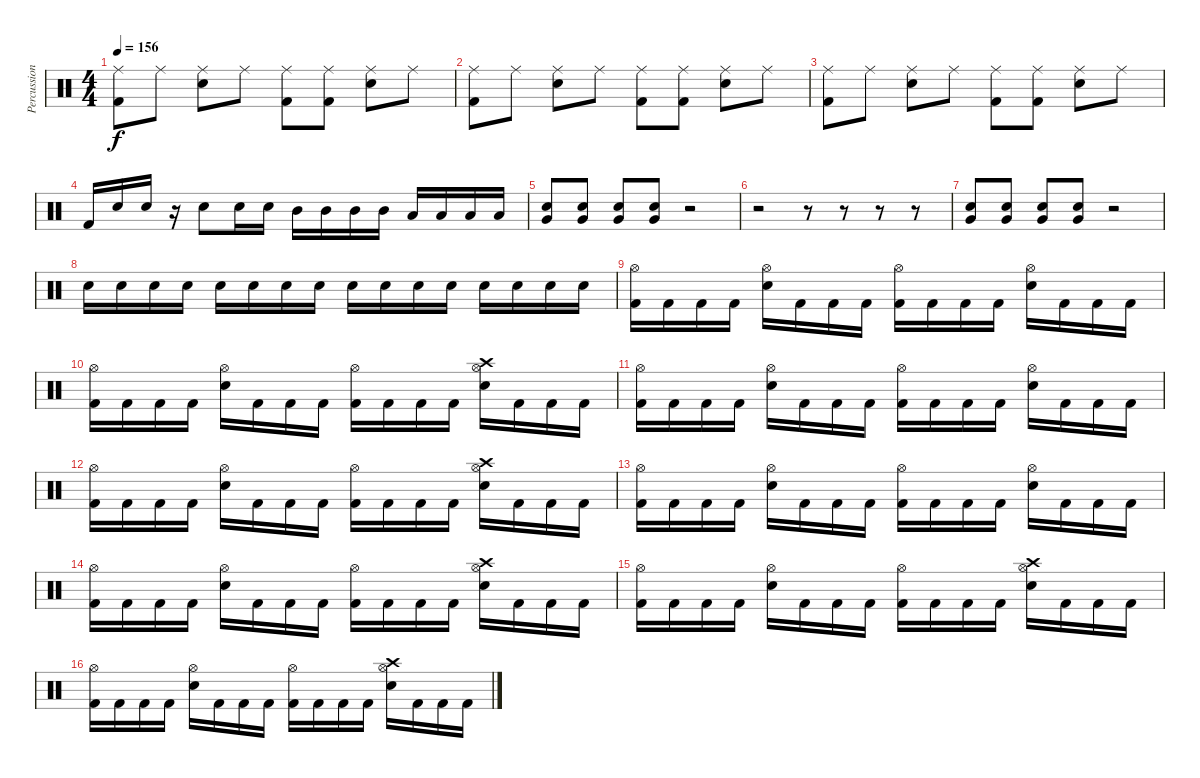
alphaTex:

\track ("Percussion" "Percussion") {instrument percussion}
\staff {score}
\articulation defaults
\ts (4 4)
\tempo 156
\clef neutral
\ks c
("Ride (middle)" "Kick (hit) 2").8{dy f} "Ride (middle)".8 ("Ride (middle)" "Snare (hit) 2").8 "Ride (middle)".8 ("Ride (middle)" "Kick (hit) 2").8 ("Ride (middle)" "Kick (hit) 2").8 ("Ride (middle)" "Snare (hit) 2").8 "Ride (middle)".8 |
("Ride (middle)" "Kick (hit) 2").8 "Ride (middle)".8 ("Ride (middle)" "Snare (hit) 2").8 "Ride (middle)".8 ("Ride (middle)" "Kick (hit) 2").8 ("Ride (middle)" "Kick (hit) 2").8 ("Ride (middle)" "Snare (hit) 2").8 "Ride (middle)".8 |
("Ride (middle)" "Kick (hit) 2").8 "Ride (middle)".8 ("Ride (middle)" "Snare (hit) 2").8 "Ride (middle)".8 ("Ride (middle)" "Kick (hit) 2").8 ("Ride (middle)" "Kick (hit) 2").8 ("Ride (middle)" "Snare (hit) 2").8 "Ride (middle)".8 |
"Kick (hit) 2".16 "Electric Snare (hit)".16 "Electric Snare (hit)".16 r.16 "Electric Snare (hit)".8 "Electric Snare (hit)".16 "Electric Snare (hit)".16 "Mid Tom (hit)".16 "Mid Tom (hit)".16 "Mid Tom (hit)".16 "Mid Tom (hit)".16 "Low Tom (hit)".16 "Low Tom (hit)".16 "Low Tom (hit)".16 "Low Tom (hit)".16 |
("Very Low Tom (hit)" "Snare (hit) 2").8 ("Very Low Tom (hit)" "Snare (hit) 2").8 ("Very Low Tom (hit)" "Snare (hit) 2").8 ("Very Low Tom (hit)" "Snare (hit) 2").8 r.2 |
r.2 r.8 r.8 r.8 r.8 |
("Very Low Tom (hit)" "Snare (hit) 2").8 ("Very Low Tom (hit)" "Snare (hit) 2").8 ("Very Low Tom (hit)" "Snare (hit) 2").8 ("Very Low Tom (hit)" "Snare (hit) 2").8 r.2 |
"Snare (hit) 2".16 "Snare (hit) 2".16 "Snare (hit) 2".16 "Snare (hit) 2".16 "Snare (hit) 2".16 "Snare (hit) 2".16 "Snare (hit) 2".16 "Snare (hit) 2".16 "Snare (hit) 2".16 "Snare (hit) 2".16 "Snare (hit) 2".16 "Snare (hit) 2".16 "Snare (hit) 2".16 "Snare (hit) 2".16 "Snare (hit) 2".16 "Snare (hit) 2".16 |
("Hi-Hat (open)" "Kick (hit) 2").16 "Kick (hit) 2".16 "Kick (hit) 2".16 "Kick (hit) 2".16 ("Hi-Hat (open)" "Snare (hit) 2").16 "Kick (hit) 2".16 "Kick (hit) 2".16 "Kick (hit) 2".16 ("Hi-Hat (open)" "Kick (hit) 2").16 "Kick (hit) 2".16 "Kick (hit) 2".16 "Kick (hit) 2".16 ("Hi-Hat (open)" "Snare (hit) 2").16 "Kick (hit) 2".16 "Kick (hit) 2".16 "Kick (hit) 2".16 |
("Hi-Hat (open)" "Kick (hit) 2").16 "Kick (hit) 2".16 "Kick (hit) 2".16 "Kick (hit) 2".16 ("Hi-Hat (open)" "Snare (hit) 2").16 "Kick (hit) 2".16 "Kick (hit) 2".16 "Kick (hit) 2".16 ("Hi-Hat (open)" "Kick (hit) 2").16 "Kick (hit) 2".16 "Kick (hit) 2".16 "Kick (hit) 2".16 ("Crash high (hit)" "Hi-Hat (open)" "Snare (hit) 2").16 "Kick (hit) 2".16 "Kick (hit) 2".16 "Kick (hit) 2".16 |
("Hi-Hat (open)" "Kick (hit) 2").16 "Kick (hit) 2".16 "Kick (hit) 2".16 "Kick (hit) 2".16 ("Hi-Hat (open)" "Snare (hit) 2").16 "Kick (hit) 2".16 "Kick (hit) 2".16 "Kick (hit) 2".16 ("Hi-Hat (open)" "Kick (hit) 2").16 "Kick (hit) 2".16 "Kick (hit) 2".16 "Kick (hit) 2".16 ("Hi-Hat (open)" "Snare (hit) 2").16 "Kick (hit) 2".16 "Kick (hit) 2".16 "Kick (hit) 2".16 |
("Hi-Hat (open)" "Kick (hit) 2").16 "Kick (hit) 2".16 "Kick (hit) 2".16 "Kick (hit) 2".16 ("Hi-Hat (open)" "Snare (hit) 2").16 "Kick (hit) 2".16 "Kick (hit) 2".16 "Kick (hit) 2".16 ("Hi-Hat (open)" "Kick (hit) 2").16 "Kick (hit) 2".16 "Kick (hit) 2".16 "Kick (hit) 2".16 ("Crash high (hit)" "Hi-Hat (open)" "Snare (hit) 2").16 "Kick (hit) 2".16 "Kick (hit) 2".16 "Kick (hit) 2".16 |
("Hi-Hat (open)" "Kick (hit) 2").16 "Kick (hit) 2".16 "Kick (hit) 2".16 "Kick (hit) 2".16 ("Hi-Hat (open)" "Snare (hit) 2").16 "Kick (hit) 2".16 "Kick (hit) 2".16 "Kick (hit) 2".16 ("Hi-Hat (open)" "Kick (hit) 2").16 "Kick (hit) 2".16 "Kick (hit) 2".16 "Kick (hit) 2".16 ("Hi-Hat (open)" "Snare (hit) 2").16 "Kick (hit) 2".16 "Kick (hit) 2".16 "Kick (hit) 2".16 |
("Hi-Hat (open)" "Kick (hit) 2").16 "Kick (hit) 2".16 "Kick (hit) 2".16 "Kick (hit) 2".16 ("Hi-Hat (open)" "Snare (hit) 2").16 "Kick (hit) 2".16 "Kick (hit) 2".16 "Kick (hit) 2".16 ("Hi-Hat (open)" "Kick (hit) 2").16 "Kick (hit) 2".16 "Kick (hit) 2".16 "Kick (hit) 2".16 ("Crash high (hit)" "Hi-Hat (open)" "Snare (hit) 2").16 "Kick (hit) 2".16 "Kick (hit) 2".16 "Kick (hit) 2".16 |
("Hi-Hat (open)" "Kick (hit) 2").16 "Kick (hit) 2".16 "Kick (hit) 2".16 "Kick (hit) 2".16 ("Hi-Hat (open)" "Snare (hit) 2").16 "Kick (hit) 2".16 "Kick (hit) 2".16 "Kick (hit) 2".16 ("Hi-Hat (open)" "Kick (hit) 2").16 "Kick (hit) 2".16 "Kick (hit) 2".16 "Kick (hit) 2".16 ("Crash high (hit)" "Hi-Hat (open)" "Snare (hit) 2").16 "Kick (hit) 2".16 "Kick (hit) 2".16 "Kick (hit) 2".16 |
("Hi-Hat (open)" "Kick (hit) 2").16 "Kick (hit) 2".16 "Kick (hit) 2".16 "Kick (hit) 2".16 ("Hi-Hat (open)" "Snare (hit) 2").16 "Kick (hit) 2".16 "Kick (hit) 2".16 "Kick (hit) 2".16 ("Hi-Hat (open)" "Kick (hit) 2").16 "Kick (hit) 2".16 "Kick (hit) 2".16 "Kick (hit) 2".16 ("Crash high (hit)" "Hi-Hat (open)" "Snare (hit) 2").16 "Kick (hit) 2".16 "Kick (hit) 2".16 "Kick (hit) 2".16
